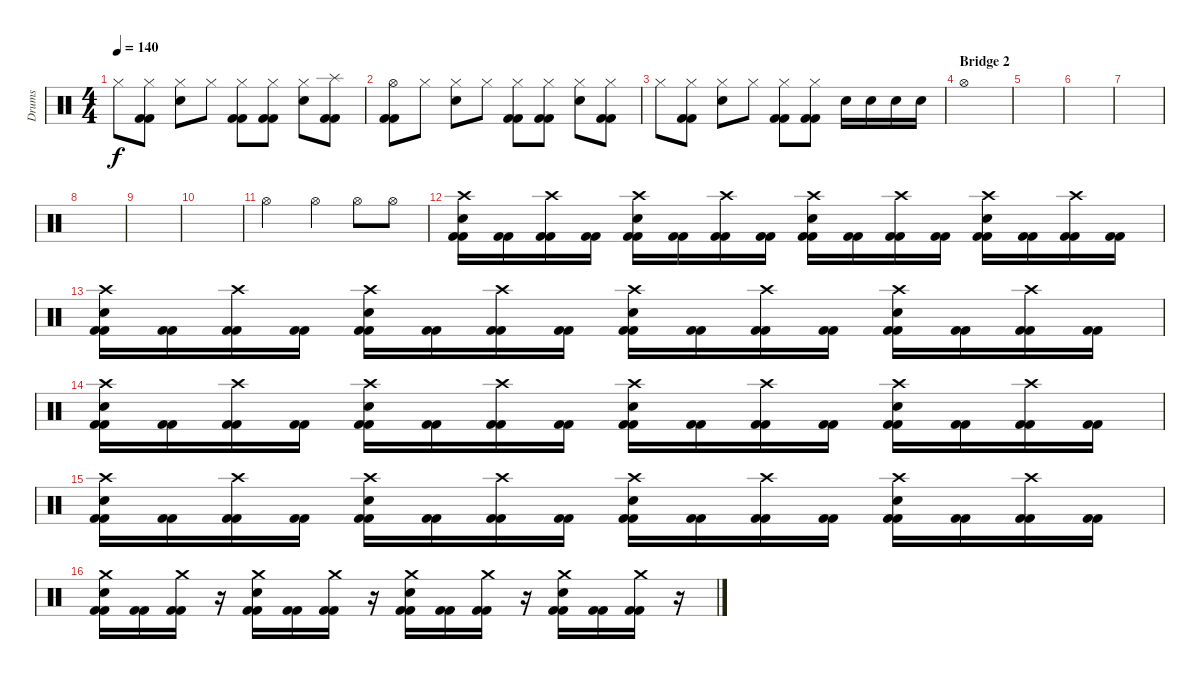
\track ("Drums" "Drums") {instrument percussion}
\staff {score}
\articulation defaults
\ts (4 4)
\tempo 140
\clef neutral
\ks c "Hi-Hat (closed)".8{dy f}
("Hi-Hat (closed)" "Kick (hit) 2" "Kick (hit) 2").8 ("Hi-Hat (closed)" "Electric Snare (hit)").8 "Hi-Hat (closed)".8 ("Hi-Hat (closed)" "Kick (hit) 2" "Kick (hit) 2").8 ("Hi-Hat (closed)" "Kick (hit) 2" "Kick (hit) 2").8 ("Hi-Hat (closed)" "Electric Snare (hit)").8 ("Splash (hit)" "Kick (hit) 2" "Kick (hit) 2").8 |
("Hi-Hat (open)" "Kick (hit) 2" "Kick (hit) 2").8 "Hi-Hat (closed)".8 ("Hi-Hat (closed)" "Electric Snare (hit)").8 "Hi-Hat (closed)".8 ("Hi-Hat (closed)" "Kick (hit) 2" "Kick (hit) 2").8 ("Hi-Hat (closed)" "Kick (hit) 2" "Kick (hit) 2").8 ("Hi-Hat (closed)" "Electric Snare (hit)").8 ("Hi-Hat (closed)" "Kick (hit) 2" "Kick (hit) 2").8 |
"Hi-Hat (closed)".8 ("Hi-Hat (closed)" "Kick (hit) 2" "Kick (hit) 2").8 ("Hi-Hat (closed)" "Electric Snare (hit)").8 "Hi-Hat (closed)".8 ("Hi-Hat (closed)" "Kick (hit) 2" "Kick (hit) 2").8 ("Hi-Hat (closed)" "Kick (hit) 2" "Kick (hit) 2").8 "Electric Snare (hit)".16 "Electric Snare (hit)".16 "Electric Snare (hit)".16 "Electric Snare (hit)".16 |
\section ("" "Bridge 2")
"Hi-Hat (open)".1 |
|
|
|
|
|
|
"Hi-Hat (open)".2 "Hi-Hat (open)".4 "Hi-Hat (open)".8 "Hi-Hat (open)".8 |
("Crash high (hit)" "Kick (hit) 2" "Electric Snare (hit)" "Kick (hit) 2").16 ("Kick (hit) 2" "Kick (hit) 2").16 ("Crash high (hit)" "Kick (hit) 2" "Kick (hit) 2").16 ("Kick (hit) 2" "Kick (hit) 2").16 ("Crash high (hit)" "Kick (hit) 2" "Electric Snare (hit)" "Kick (hit) 2").16 ("Kick (hit) 2" "Kick (hit) 2").16 ("Crash high (hit)" "Kick (hit) 2" "Kick (hit) 2").16 ("Kick (hit) 2" "Kick (hit) 2").16 ("Crash high (hit)" "Kick (hit) 2" "Electric Snare (hit)" "Kick (hit) 2").16 ("Kick (hit) 2" "Kick (hit) 2").16 ("Crash high (hit)" "Kick (hit) 2" "Kick (hit) 2").16 ("Kick (hit) 2" "Kick (hit) 2").16 ("Crash high (hit)" "Kick (hit) 2" "Electric Snare (hit)" "Kick (hit) 2").16 ("Kick (hit) 2" "Kick (hit) 2").16 ("Crash high (hit)" "Kick (hit) 2" "Kick (hit) 2").16 ("Kick (hit) 2" "Kick (hit) 2").16 |
("Crash high (hit)" "Kick (hit) 2" "Electric Snare (hit)" "Kick (hit) 2").16 ("Kick (hit) 2" "Kick (hit) 2").16 ("Crash high (hit)" "Kick (hit) 2" "Kick (hit) 2").16 ("Kick (hit) 2" "Kick (hit) 2").16 ("Crash high (hit)" "Kick (hit) 2" "Electric Snare (hit)" "Kick (hit) 2").16 ("Kick (hit) 2" "Kick (hit) 2").16 ("Crash high (hit)" "Kick (hit) 2" "Kick (hit) 2").16 ("Kick (hit) 2" "Kick (hit) 2").16 ("Crash high (hit)" "Kick (hit) 2" "Electric Snare (hit)" "Kick (hit) 2").16 ("Kick (hit) 2" "Kick (hit) 2").16 ("Crash high (hit)" "Kick (hit) 2" "Kick (hit) 2").16 ("Kick (hit) 2" "Kick (hit) 2").16 ("Crash high (hit)" "Kick (hit) 2" "Electric Snare (hit)" "Kick (hit) 2").16 ("Kick (hit) 2" "Kick (hit) 2").16 ("Crash high (hit)" "Kick (hit) 2" "Kick (hit) 2").16 ("Kick (hit) 2" "Kick (hit) 2").16 |
("Crash high (hit)" "Kick (hit) 2" "Electric Snare (hit)" "Kick (hit) 2").16 ("Kick (hit) 2" "Kick (hit) 2").16 ("Crash high (hit)" "Kick (hit) 2" "Kick (hit) 2").16 ("Kick (hit) 2" "Kick (hit) 2").16 ("Crash high (hit)" "Kick (hit) 2" "Electric Snare (hit)" "Kick (hit) 2").16 ("Kick (hit) 2" "Kick (hit) 2").16 ("Crash high (hit)" "Kick (hit) 2" "Kick (hit) 2").16 ("Kick (hit) 2" "Kick (hit) 2").16 ("Crash high (hit)" "Kick (hit) 2" "Electric Snare (hit)" "Kick (hit) 2").16 ("Kick (hit) 2" "Kick (hit) 2").16 ("Crash high (hit)" "Kick (hit) 2" "Kick (hit) 2").16 ("Kick (hit) 2" "Kick (hit) 2").16 ("Crash high (hit)" "Kick (hit) 2" "Electric Snare (hit)" "Kick (hit) 2").16 ("Kick (hit) 2" "Kick (hit) 2").16 ("Crash high (hit)" "Kick (hit) 2" "Kick (hit) 2").16 ("Kick (hit) 2" "Kick (hit) 2").16 |
("Crash high (hit)" "Kick (hit) 2" "Electric Snare (hit)" "Kick (hit) 2").16 ("Kick (hit) 2" "Kick (hit) 2").16 ("Crash high (hit)" "Kick (hit) 2" "Kick (hit) 2").16 ("Kick (hit) 2" "Kick (hit) 2").16 ("Crash high (hit)" "Kick (hit) 2" "Electric Snare (hit)" "Kick (hit) 2").16 ("Kick (hit) 2" "Kick (hit) 2").16 ("Crash high (hit)" "Kick (hit) 2" "Kick (hit) 2").16 ("Kick (hit) 2" "Kick (hit) 2").16 ("Crash high (hit)" "Kick (hit) 2" "Electric Snare (hit)" "Kick (hit) 2").16 ("Kick (hit) 2" "Kick (hit) 2").16 ("Crash high (hit)" "Kick (hit) 2" "Kick (hit) 2").16 ("Kick (hit) 2" "Kick (hit) 2").16 ("Crash high (hit)" "Kick (hit) 2" "Electric Snare (hit)" "Kick (hit) 2").16 ("Kick (hit) 2" "Kick (hit) 2").16 ("Crash high (hit)" "Kick (hit) 2" "Kick (hit) 2").16 ("Kick (hit) 2" "Kick (hit) 2").16 |
("Crash medium (hit)" "Kick (hit) 2" "Electric Snare (hit)" "Kick (hit) 2").16 ("Kick (hit) 2" "Kick (hit) 2").16 ("Crash medium (hit)" "Kick (hit) 2" "Kick (hit) 2").16 r.16 ("Crash medium (hit)" "Kick (hit) 2" "Electric Snare (hit)" "Kick (hit) 2").16 ("Kick (hit) 2" "Kick (hit) 2").16 ("Crash medium (hit)" "Kick (hit) 2" "Kick (hit) 2").16 r.16 ("Crash medium (hit)" "Kick (hit) 2" "Electric Snare (hit)" "Kick (hit) 2").16 ("Kick (hit) 2" "Kick (hit) 2").16 ("Crash medium (hit)" "Kick (hit) 2" "Kick (hit) 2").16 r.16 ("Crash medium (hit)" "Kick (hit) 2" "Electric Snare (hit)" "Kick (hit) 2").16 ("Kick (hit) 2" "Kick (hit) 2").16 ("Crash medium (hit)" "Kick (hit) 2" "Kick (hit) 2").16 r.16
